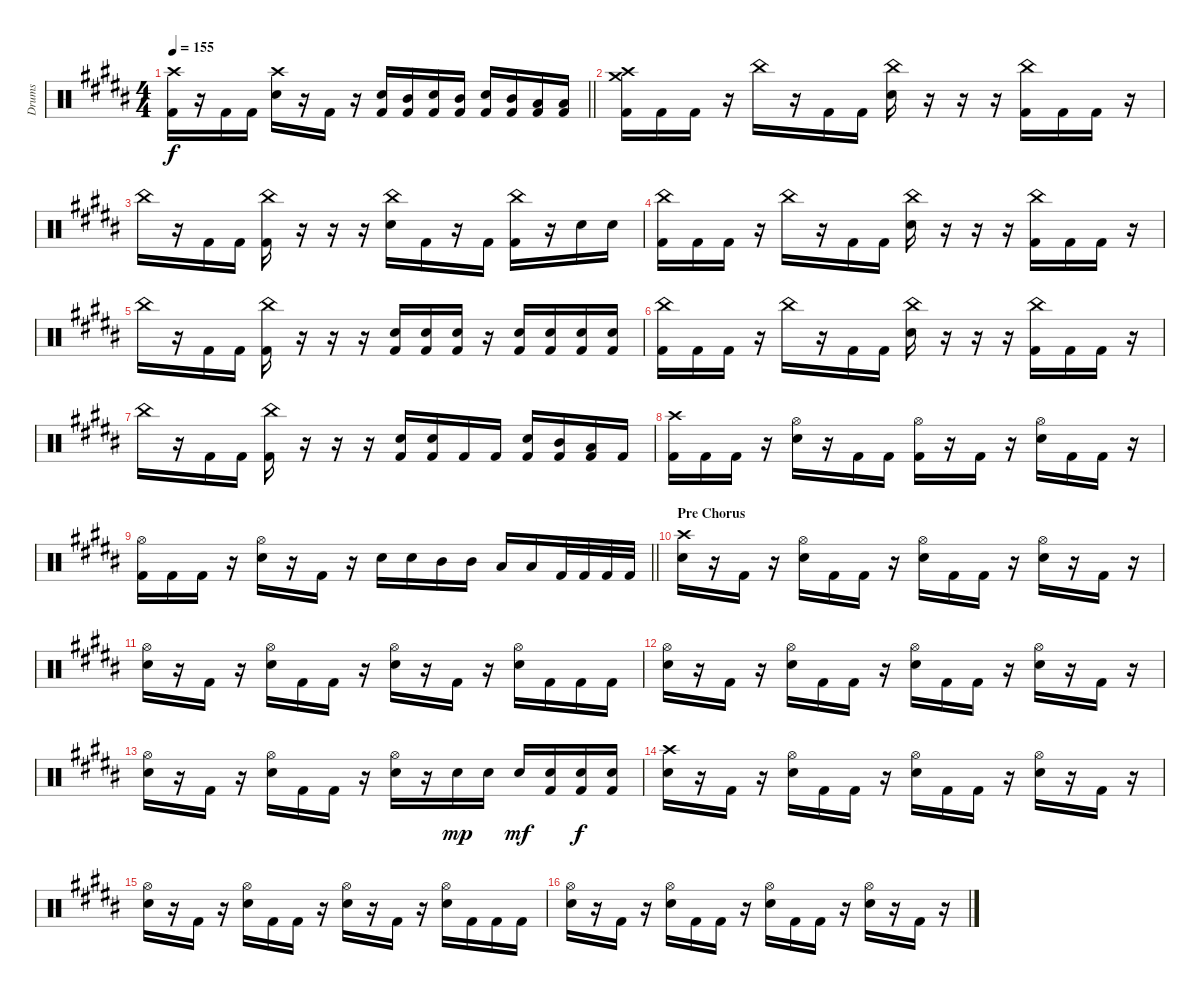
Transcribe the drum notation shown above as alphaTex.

\track ("Drums" "Drums") {instrument percussion}
\staff {score}
\articulation defaults
\ts (4 4)
\tempo 155
\clef neutral
\barLineRight lightlight
\ks g#minor
("Crash high (hit)" "Kick (hit) 2").16{dy f} r.16 "Kick (hit) 2".16 "Kick (hit) 2".16 ("Crash high (hit)" "Electric Snare (hit)").16 r.16 "Kick (hit) 2".16 r.16 ("Electric Snare (hit)" "Kick (hit) 2").16 ("Mid Tom (hit)" "Kick (hit) 2").16 ("Electric Snare (hit)" "Kick (hit) 2").16 ("Mid Tom (hit)" "Kick (hit) 2").16 ("Electric Snare (hit)" "Kick (hit) 2").16 ("Mid Tom (hit)" "Kick (hit) 2").16 ("Low Floor Tom (hit)" "Kick (hit) 2").16 ("Low Floor Tom (hit)" "Kick (hit) 2").16 |
("Crash high (hit)" "Crash medium (hit)" "Kick (hit) 2").16 "Kick (hit) 2".16 "Kick (hit) 2".16 r.16 "China (hit)".16 r.16 "Kick (hit) 2".16 "Kick (hit) 2".16 ("China (hit)" "Electric Snare (hit)").16 r.16 r.16 r.16 ("China (hit)" "Kick (hit) 2").16 "Kick (hit) 2".16 "Kick (hit) 2".16 r.16 |
"China (hit)".16 r.16 "Kick (hit) 2".16 "Kick (hit) 2".16 ("China (hit)" "Kick (hit) 2").16 r.16 r.16 r.16 ("China (hit)" "Electric Snare (hit)").16 "Kick (hit) 2".16 r.16 "Kick (hit) 2".16 ("China (hit)" "Kick (hit) 2").16 r.16 "Electric Snare (hit)".16 "Electric Snare (hit)".16 |
("China (hit)" "Kick (hit) 2").16 "Kick (hit) 2".16 "Kick (hit) 2".16 r.16 "China (hit)".16 r.16 "Kick (hit) 2".16 "Kick (hit) 2".16 ("China (hit)" "Electric Snare (hit)").16 r.16 r.16 r.16 ("China (hit)" "Kick (hit) 2").16 "Kick (hit) 2".16 "Kick (hit) 2".16 r.16 |
"China (hit)".16 r.16 "Kick (hit) 2".16 "Kick (hit) 2".16 ("China (hit)" "Kick (hit) 2").16 r.16 r.16 r.16 ("Electric Snare (hit)" "Kick (hit) 2").16 ("Electric Snare (hit)" "Kick (hit) 2").16 ("Electric Snare (hit)" "Kick (hit) 2").16 r.16 ("Electric Snare (hit)" "Kick (hit) 2").16 ("Electric Snare (hit)" "Kick (hit) 2").16 ("Electric Snare (hit)" "Kick (hit) 2").16 ("Electric Snare (hit)" "Kick (hit) 2").16 |
("China (hit)" "Kick (hit) 2").16 "Kick (hit) 2".16 "Kick (hit) 2".16 r.16 "China (hit)".16 r.16 "Kick (hit) 2".16 "Kick (hit) 2".16 ("China (hit)" "Electric Snare (hit)").16 r.16 r.16 r.16 ("China (hit)" "Kick (hit) 2").16 "Kick (hit) 2".16 "Kick (hit) 2".16 r.16 |
"China (hit)".16 r.16 "Kick (hit) 2".16 "Kick (hit) 2".16 ("China (hit)" "Kick (hit) 2").16 r.16 r.16 r.16 ("Electric Snare (hit)" "Kick (hit) 2").16 ("Electric Snare (hit)" "Kick (hit) 2").16 "Kick (hit) 2".16 "Kick (hit) 2".16 ("Electric Snare (hit)" "Kick (hit) 2").16 ("Mid Tom (hit)" "Kick (hit) 2").16 ("Low Floor Tom (hit)" "Kick (hit) 2").16 "Kick (hit) 2".16 |
("Crash high (hit)" "Kick (hit) 2").16 "Kick (hit) 2".16 "Kick (hit) 2".16 r.16 ("Hi-Hat (open)" "Electric Snare (hit)").16 r.16 "Kick (hit) 2".16 "Kick (hit) 2".16 ("Hi-Hat (open)" "Kick (hit) 2").16 r.16 "Kick (hit) 2".16 r.16 ("Hi-Hat (open)" "Electric Snare (hit)").16 "Kick (hit) 2".16 "Kick (hit) 2".16 r.16 |
\barLineRight lightlight
("Hi-Hat (open)" "Kick (hit) 2").16 "Kick (hit) 2".16 "Kick (hit) 2".16 r.16 ("Hi-Hat (open)" "Electric Snare (hit)").16 r.16 "Kick (hit) 2".16 r.16 "Electric Snare (hit)".16 "Electric Snare (hit)".16 "Mid Tom (hit)".16 "Mid Tom (hit)".16 "Low Floor Tom (hit)".16 "Low Floor Tom (hit)".16 "Kick (hit) 2".32 "Kick (hit) 2".32 "Kick (hit) 2".32 "Kick (hit) 2".32 |
\section ("" "Pre Chorus")
("Crash high (hit)" "Electric Snare (hit)").16 r.16 "Kick (hit) 2".16 r.16 ("Hi-Hat (open)" "Electric Snare (hit)").16 "Kick (hit) 2".16 "Kick (hit) 2".16 r.16 ("Hi-Hat (open)" "Electric Snare (hit)").16 "Kick (hit) 2".16 "Kick (hit) 2".16 r.16 ("Hi-Hat (open)" "Electric Snare (hit)").16 r.16 "Kick (hit) 2".16 r.16 |
("Hi-Hat (open)" "Electric Snare (hit)").16 r.16 "Kick (hit) 2".16 r.16 ("Hi-Hat (open)" "Electric Snare (hit)").16 "Kick (hit) 2".16 "Kick (hit) 2".16 r.16 ("Hi-Hat (open)" "Electric Snare (hit)").16 r.16 "Kick (hit) 2".16 r.16 ("Hi-Hat (open)" "Electric Snare (hit)").16 "Kick (hit) 2".16 "Kick (hit) 2".16 "Kick (hit) 2".16 |
("Hi-Hat (open)" "Electric Snare (hit)").16 r.16 "Kick (hit) 2".16 r.16 ("Hi-Hat (open)" "Electric Snare (hit)").16 "Kick (hit) 2".16 "Kick (hit) 2".16 r.16 ("Hi-Hat (open)" "Electric Snare (hit)").16 "Kick (hit) 2".16 "Kick (hit) 2".16 r.16 ("Hi-Hat (open)" "Electric Snare (hit)").16 r.16 "Kick (hit) 2".16 r.16 |
("Hi-Hat (open)" "Electric Snare (hit)").16 r.16 "Kick (hit) 2".16 r.16 ("Hi-Hat (open)" "Electric Snare (hit)").16 "Kick (hit) 2".16 "Kick (hit) 2".16 r.16 ("Hi-Hat (open)" "Electric Snare (hit)").16 r.16 "Electric Snare (hit)".16{dy mp} "Electric Snare (hit)".16 "Electric Snare (hit)".16{dy mf} ("Electric Snare (hit)" "Kick (hit) 2").16 ("Electric Snare (hit)" "Kick (hit) 2").16{dy f} ("Electric Snare (hit)" "Kick (hit) 2").16 |
("Crash high (hit)" "Electric Snare (hit)").16 r.16 "Kick (hit) 2".16 r.16 ("Hi-Hat (open)" "Electric Snare (hit)").16 "Kick (hit) 2".16 "Kick (hit) 2".16 r.16 ("Hi-Hat (open)" "Electric Snare (hit)").16 "Kick (hit) 2".16 "Kick (hit) 2".16 r.16 ("Hi-Hat (open)" "Electric Snare (hit)").16 r.16 "Kick (hit) 2".16 r.16 |
("Hi-Hat (open)" "Electric Snare (hit)").16 r.16 "Kick (hit) 2".16 r.16 ("Hi-Hat (open)" "Electric Snare (hit)").16 "Kick (hit) 2".16 "Kick (hit) 2".16 r.16 ("Hi-Hat (open)" "Electric Snare (hit)").16 r.16 "Kick (hit) 2".16 r.16 ("Hi-Hat (open)" "Electric Snare (hit)").16 "Kick (hit) 2".16 "Kick (hit) 2".16 "Kick (hit) 2".16 |
("Hi-Hat (open)" "Electric Snare (hit)").16 r.16 "Kick (hit) 2".16 r.16 ("Hi-Hat (open)" "Electric Snare (hit)").16 "Kick (hit) 2".16 "Kick (hit) 2".16 r.16 ("Hi-Hat (open)" "Electric Snare (hit)").16 "Kick (hit) 2".16 "Kick (hit) 2".16 r.16 ("Hi-Hat (open)" "Electric Snare (hit)").16 r.16 "Kick (hit) 2".16 r.16
